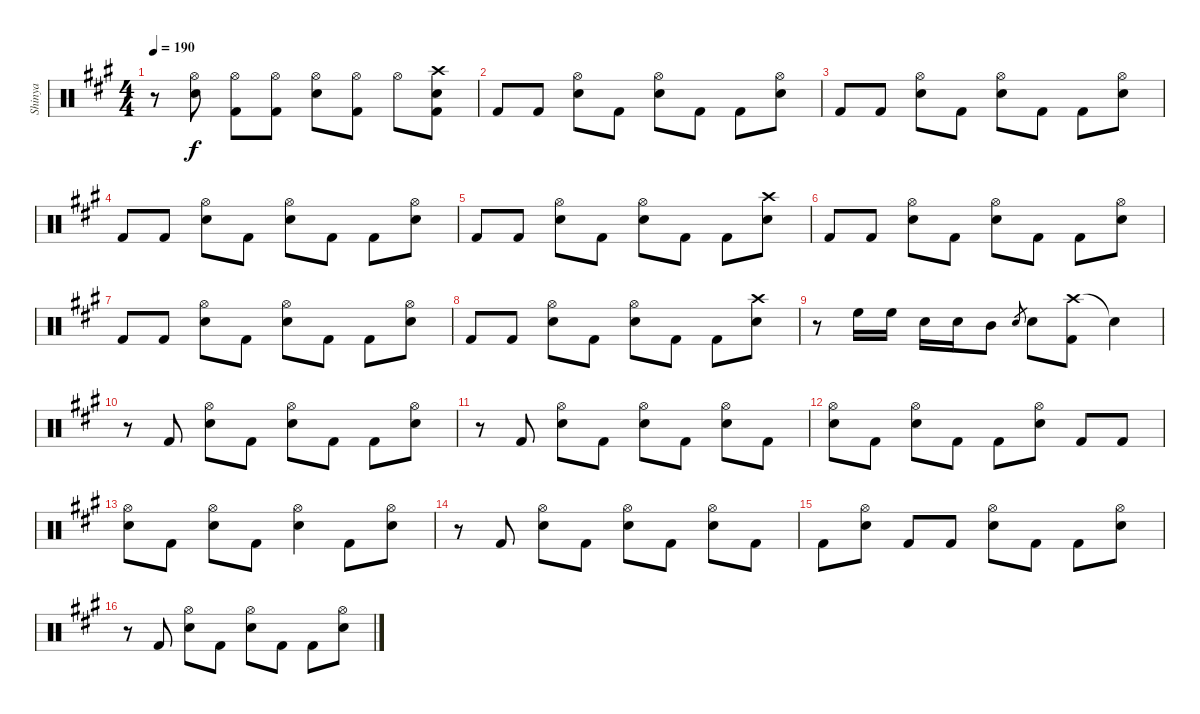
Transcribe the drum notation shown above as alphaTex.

\track ("Shinya" "Shinya") {instrument percussion}
\staff {score}
\articulation defaults
\ts (4 4)
\tempo 190
\clef neutral
\ks a
r.8{dy f} ("Hi-Hat (open)" "Snare (hit) 2").8 ("Hi-Hat (open)" "Kick (hit) 2").8 ("Hi-Hat (open)" "Kick (hit) 2").8 ("Hi-Hat (open)" "Snare (hit) 2").8 ("Hi-Hat (open)" "Kick (hit) 2").8 "Hi-Hat (open)".8 ("Crash high (hit)" "Snare (hit) 2" "Kick (hit) 2").8 |
"Kick (hit) 2".8 "Kick (hit) 2".8 ("Hi-Hat (open)" "Snare (hit) 2").8 "Kick (hit) 2".8 ("Hi-Hat (open)" "Snare (hit) 2").8 "Kick (hit) 2".8 "Kick (hit) 2".8 ("Hi-Hat (open)" "Snare (hit) 2").8 |
"Kick (hit) 2".8 "Kick (hit) 2".8 ("Hi-Hat (open)" "Snare (hit) 2").8 "Kick (hit) 2".8 ("Hi-Hat (open)" "Snare (hit) 2").8 "Kick (hit) 2".8 "Kick (hit) 2".8 ("Hi-Hat (open)" "Snare (hit) 2").8 |
"Kick (hit) 2".8 "Kick (hit) 2".8 ("Hi-Hat (open)" "Snare (hit) 2").8 "Kick (hit) 2".8 ("Hi-Hat (open)" "Snare (hit) 2").8 "Kick (hit) 2".8 "Kick (hit) 2".8 ("Hi-Hat (open)" "Snare (hit) 2").8 |
"Kick (hit) 2".8 "Kick (hit) 2".8 ("Hi-Hat (open)" "Snare (hit) 2").8 "Kick (hit) 2".8 ("Hi-Hat (open)" "Snare (hit) 2").8 "Kick (hit) 2".8 "Kick (hit) 2".8 ("Crash high (hit)" "Snare (hit) 2").8 |
"Kick (hit) 2".8 "Kick (hit) 2".8 ("Hi-Hat (open)" "Snare (hit) 2").8 "Kick (hit) 2".8 ("Hi-Hat (open)" "Snare (hit) 2").8 "Kick (hit) 2".8 "Kick (hit) 2".8 ("Hi-Hat (open)" "Snare (hit) 2").8 |
"Kick (hit) 2".8 "Kick (hit) 2".8 ("Hi-Hat (open)" "Snare (hit) 2").8 "Kick (hit) 2".8 ("Hi-Hat (open)" "Snare (hit) 2").8 "Kick (hit) 2".8 "Kick (hit) 2".8 ("Hi-Hat (open)" "Snare (hit) 2").8 |
"Kick (hit) 2".8 "Kick (hit) 2".8 ("Hi-Hat (open)" "Snare (hit) 2").8 "Kick (hit) 2".8 ("Hi-Hat (open)" "Snare (hit) 2").8 "Kick (hit) 2".8 "Kick (hit) 2".8 ("Crash high (hit)" "Snare (hit) 2").8 |
r.8 "High Floor Tom (hit)".16 "High Floor Tom (hit)".16 "Snare (hit) 2".16 "Snare (hit) 2".16 "Mid Tom (hit)".8 "Snare (hit) 2".8{gr} "Snare (hit) 2".8 ("Crash high (hit)" "Kick (hit) 2").8 "Snare (hit)"{t}.4 |
r.8 "Kick (hit) 2".8 ("Hi-Hat (open)" "Snare (hit) 2").8 "Kick (hit) 2".8 ("Hi-Hat (open)" "Snare (hit) 2").8 "Kick (hit) 2".8 "Kick (hit) 2".8 ("Hi-Hat (open)" "Snare (hit) 2").8 |
r.8 "Kick (hit) 2".8 ("Hi-Hat (open)" "Snare (hit) 2").8 "Kick (hit) 2".8 ("Hi-Hat (open)" "Snare (hit) 2").8 "Kick (hit) 2".8 ("Hi-Hat (open)" "Snare (hit) 2").8 "Kick (hit) 2".8 |
("Hi-Hat (open)" "Snare (hit) 2").8 "Kick (hit) 2".8 ("Hi-Hat (open)" "Snare (hit) 2").8 "Kick (hit) 2".8 "Kick (hit) 2".8 ("Hi-Hat (open)" "Snare (hit) 2").8 "Kick (hit) 2".8 "Kick (hit) 2".8 |
("Hi-Hat (open)" "Snare (hit) 2").8 "Kick (hit) 2".8 ("Hi-Hat (open)" "Snare (hit) 2").8 "Kick (hit) 2".8 ("Hi-Hat (open)" "Snare (hit) 2").4 "Kick (hit) 2".8 ("Hi-Hat (open)" "Snare (hit) 2").8 |
r.8 "Kick (hit) 2".8 ("Hi-Hat (open)" "Snare (hit) 2").8 "Kick (hit) 2".8 ("Hi-Hat (open)" "Snare (hit) 2").8 "Kick (hit) 2".8 ("Hi-Hat (open)" "Snare (hit) 2").8 "Kick (hit) 2".8 |
"Kick (hit) 2".8 ("Hi-Hat (open)" "Snare (hit) 2").8 "Kick (hit) 2".8 "Kick (hit) 2".8 ("Hi-Hat (open)" "Snare (hit) 2").8 "Kick (hit) 2".8 "Kick (hit) 2".8 ("Hi-Hat (open)" "Snare (hit) 2").8 |
r.8 "Kick (hit) 2".8 ("Hi-Hat (open)" "Snare (hit) 2").8 "Kick (hit) 2".8 ("Hi-Hat (open)" "Snare (hit) 2").8 "Kick (hit) 2".8 "Kick (hit) 2".8 ("Hi-Hat (open)" "Snare (hit) 2").8
